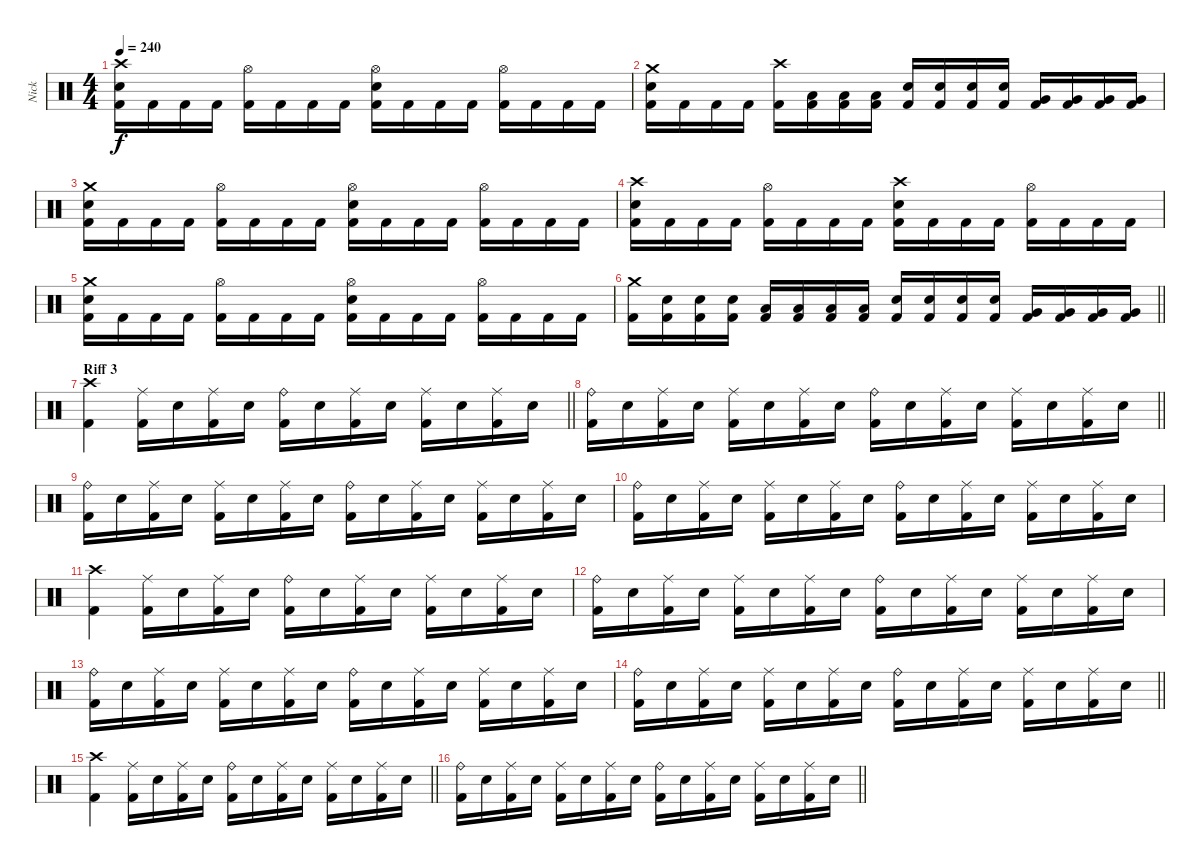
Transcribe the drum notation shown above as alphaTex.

\track ("Nick" "Nick") {instrument percussion}
\staff {score}
\articulation defaults
\ts (4 4)
\tempo 240
\clef neutral
\ks c
("Crash high (hit)" "Electric Snare (hit)" "Kick (hit) 2").16{dy f} "Kick (hit) 2".16 "Kick (hit) 2".16 "Kick (hit) 2".16 ("Hi-Hat (open)" "Kick (hit) 2").16 "Kick (hit) 2".16 "Kick (hit) 2".16 "Kick (hit) 2".16 ("Hi-Hat (open)" "Electric Snare (hit)" "Kick (hit) 2").16 "Kick (hit) 2".16 "Kick (hit) 2".16 "Kick (hit) 2".16 ("Hi-Hat (open)" "Kick (hit) 2").16 "Kick (hit) 2".16 "Kick (hit) 2".16 "Kick (hit) 2".16 |
("Crash medium (hit)" "Electric Snare (hit)" "Kick (hit) 2").16 "Kick (hit) 2".16 "Kick (hit) 2".16 "Kick (hit) 2".16 ("Crash high (hit)" "Kick (hit) 2").16 ("Low Tom (hit)" "Kick (hit) 2").16 ("Low Tom (hit)" "Kick (hit) 2").16 ("Low Tom (hit)" "Kick (hit) 2").16 ("Electric Snare (hit)" "Kick (hit) 2").16 ("Electric Snare (hit)" "Kick (hit) 2").16 ("Electric Snare (hit)" "Kick (hit) 2").16 ("Electric Snare (hit)" "Kick (hit) 2").16 ("Very Low Tom (hit)" "Kick (hit) 2").16 ("Very Low Tom (hit)" "Kick (hit) 2").16 ("Very Low Tom (hit)" "Kick (hit) 2").16 ("Very Low Tom (hit)" "Kick (hit) 2").16 |
("Crash medium (hit)" "Electric Snare (hit)" "Kick (hit) 2").16 "Kick (hit) 2".16 "Kick (hit) 2".16 "Kick (hit) 2".16 ("Hi-Hat (open)" "Kick (hit) 2").16 "Kick (hit) 2".16 "Kick (hit) 2".16 "Kick (hit) 2".16 ("Hi-Hat (open)" "Electric Snare (hit)" "Kick (hit) 2").16 "Kick (hit) 2".16 "Kick (hit) 2".16 "Kick (hit) 2".16 ("Hi-Hat (open)" "Kick (hit) 2").16 "Kick (hit) 2".16 "Kick (hit) 2".16 "Kick (hit) 2".16 |
("Crash high (hit)" "Electric Snare (hit)" "Kick (hit) 2").16 "Kick (hit) 2".16 "Kick (hit) 2".16 "Kick (hit) 2".16 ("Hi-Hat (open)" "Kick (hit) 2").16 "Kick (hit) 2".16 "Kick (hit) 2".16 "Kick (hit) 2".16 ("Crash high (hit)" "Electric Snare (hit)" "Kick (hit) 2").16 "Kick (hit) 2".16 "Kick (hit) 2".16 "Kick (hit) 2".16 ("Hi-Hat (open)" "Kick (hit) 2").16 "Kick (hit) 2".16 "Kick (hit) 2".16 "Kick (hit) 2".16 |
("Crash medium (hit)" "Electric Snare (hit)" "Kick (hit) 2").16 "Kick (hit) 2".16 "Kick (hit) 2".16 "Kick (hit) 2".16 ("Hi-Hat (open)" "Kick (hit) 2").16 "Kick (hit) 2".16 "Kick (hit) 2".16 "Kick (hit) 2".16 ("Hi-Hat (open)" "Electric Snare (hit)" "Kick (hit) 2").16 "Kick (hit) 2".16 "Kick (hit) 2".16 "Kick (hit) 2".16 ("Hi-Hat (open)" "Kick (hit) 2").16 "Kick (hit) 2".16 "Kick (hit) 2".16 "Kick (hit) 2".16 |
\barLineRight lightlight
("Crash medium (hit)" "Kick (hit) 2").16 ("Electric Snare (hit)" "Kick (hit) 2").16 ("Electric Snare (hit)" "Kick (hit) 2").16 ("Electric Snare (hit)" "Kick (hit) 2").16 ("Low Tom (hit)" "Kick (hit) 2").16 ("Low Tom (hit)" "Kick (hit) 2").16 ("Low Tom (hit)" "Kick (hit) 2").16 ("Low Tom (hit)" "Kick (hit) 2").16 ("Electric Snare (hit)" "Kick (hit) 2").16 ("Electric Snare (hit)" "Kick (hit) 2").16 ("Electric Snare (hit)" "Kick (hit) 2").16 ("Electric Snare (hit)" "Kick (hit) 2").16 ("Very Low Tom (hit)" "Kick (hit) 2").16 ("Very Low Tom (hit)" "Kick (hit) 2").16 ("Very Low Tom (hit)" "Kick (hit) 2").16 ("Very Low Tom (hit)" "Kick (hit) 2").16 |
\section ("" "Riff 3")
\barLineRight lightlight
("Crash high (hit)" "Kick (hit) 2").4 ("Ride (middle)" "Kick (hit) 2").16 "Electric Snare (hit)".16 ("Ride (middle)" "Kick (hit) 2").16 "Electric Snare (hit)".16 ("Ride (bell)" "Kick (hit) 2").16 "Electric Snare (hit)".16 ("Ride (middle)" "Kick (hit) 2").16 "Electric Snare (hit)".16 ("Ride (middle)" "Kick (hit) 2").16 "Electric Snare (hit)".16 ("Ride (middle)" "Kick (hit) 2").16 "Electric Snare (hit)".16 |
\barLineRight lightlight
("Ride (bell)" "Kick (hit) 2").16 "Electric Snare (hit)".16 ("Ride (middle)" "Kick (hit) 2").16 "Electric Snare (hit)".16 ("Ride (middle)" "Kick (hit) 2").16 "Electric Snare (hit)".16 ("Ride (middle)" "Kick (hit) 2").16 "Electric Snare (hit)".16 ("Ride (bell)" "Kick (hit) 2").16 "Electric Snare (hit)".16 ("Ride (middle)" "Kick (hit) 2").16 "Electric Snare (hit)".16 ("Ride (middle)" "Kick (hit) 2").16 "Electric Snare (hit)".16 ("Ride (middle)" "Kick (hit) 2").16 "Electric Snare (hit)".16 |
("Ride (bell)" "Kick (hit) 2").16 "Electric Snare (hit)".16 ("Ride (middle)" "Kick (hit) 2").16 "Electric Snare (hit)".16 ("Ride (middle)" "Kick (hit) 2").16 "Electric Snare (hit)".16 ("Ride (middle)" "Kick (hit) 2").16 "Electric Snare (hit)".16 ("Ride (bell)" "Kick (hit) 2").16 "Electric Snare (hit)".16 ("Ride (middle)" "Kick (hit) 2").16 "Electric Snare (hit)".16 ("Ride (middle)" "Kick (hit) 2").16 "Electric Snare (hit)".16 ("Ride (middle)" "Kick (hit) 2").16 "Electric Snare (hit)".16 |
("Ride (bell)" "Kick (hit) 2").16 "Electric Snare (hit)".16 ("Ride (middle)" "Kick (hit) 2").16 "Electric Snare (hit)".16 ("Ride (middle)" "Kick (hit) 2").16 "Electric Snare (hit)".16 ("Ride (middle)" "Kick (hit) 2").16 "Electric Snare (hit)".16 ("Ride (bell)" "Kick (hit) 2").16 "Electric Snare (hit)".16 ("Ride (middle)" "Kick (hit) 2").16 "Electric Snare (hit)".16 ("Ride (middle)" "Kick (hit) 2").16 "Electric Snare (hit)".16 ("Ride (middle)" "Kick (hit) 2").16 "Electric Snare (hit)".16 |
("Crash high (hit)" "Kick (hit) 2").4 ("Ride (middle)" "Kick (hit) 2").16 "Electric Snare (hit)".16 ("Ride (middle)" "Kick (hit) 2").16 "Electric Snare (hit)".16 ("Ride (bell)" "Kick (hit) 2").16 "Electric Snare (hit)".16 ("Ride (middle)" "Kick (hit) 2").16 "Electric Snare (hit)".16 ("Ride (middle)" "Kick (hit) 2").16 "Electric Snare (hit)".16 ("Ride (middle)" "Kick (hit) 2").16 "Electric Snare (hit)".16 |
("Ride (bell)" "Kick (hit) 2").16 "Electric Snare (hit)".16 ("Ride (middle)" "Kick (hit) 2").16 "Electric Snare (hit)".16 ("Ride (middle)" "Kick (hit) 2").16 "Electric Snare (hit)".16 ("Ride (middle)" "Kick (hit) 2").16 "Electric Snare (hit)".16 ("Ride (bell)" "Kick (hit) 2").16 "Electric Snare (hit)".16 ("Ride (middle)" "Kick (hit) 2").16 "Electric Snare (hit)".16 ("Ride (middle)" "Kick (hit) 2").16 "Electric Snare (hit)".16 ("Ride (middle)" "Kick (hit) 2").16 "Electric Snare (hit)".16 |
("Ride (bell)" "Kick (hit) 2").16 "Electric Snare (hit)".16 ("Ride (middle)" "Kick (hit) 2").16 "Electric Snare (hit)".16 ("Ride (middle)" "Kick (hit) 2").16 "Electric Snare (hit)".16 ("Ride (middle)" "Kick (hit) 2").16 "Electric Snare (hit)".16 ("Ride (bell)" "Kick (hit) 2").16 "Electric Snare (hit)".16 ("Ride (middle)" "Kick (hit) 2").16 "Electric Snare (hit)".16 ("Ride (middle)" "Kick (hit) 2").16 "Electric Snare (hit)".16 ("Ride (middle)" "Kick (hit) 2").16 "Electric Snare (hit)".16 |
\barLineRight lightlight
("Ride (bell)" "Kick (hit) 2").16 "Electric Snare (hit)".16 ("Ride (middle)" "Kick (hit) 2").16 "Electric Snare (hit)".16 ("Ride (middle)" "Kick (hit) 2").16 "Electric Snare (hit)".16 ("Ride (middle)" "Kick (hit) 2").16 "Electric Snare (hit)".16 ("Ride (bell)" "Kick (hit) 2").16 "Electric Snare (hit)".16 ("Ride (middle)" "Kick (hit) 2").16 "Electric Snare (hit)".16 ("Ride (middle)" "Kick (hit) 2").16 "Electric Snare (hit)".16 ("Ride (middle)" "Kick (hit) 2").16 "Electric Snare (hit)".16 |
\barLineRight lightlight
("Crash high (hit)" "Kick (hit) 2").4 ("Ride (middle)" "Kick (hit) 2").16 "Electric Snare (hit)".16 ("Ride (middle)" "Kick (hit) 2").16 "Electric Snare (hit)".16 ("Ride (bell)" "Kick (hit) 2").16 "Electric Snare (hit)".16 ("Ride (middle)" "Kick (hit) 2").16 "Electric Snare (hit)".16 ("Ride (middle)" "Kick (hit) 2").16 "Electric Snare (hit)".16 ("Ride (middle)" "Kick (hit) 2").16 "Electric Snare (hit)".16 |
\barLineRight lightlight
("Ride (bell)" "Kick (hit) 2").16 "Electric Snare (hit)".16 ("Ride (middle)" "Kick (hit) 2").16 "Electric Snare (hit)".16 ("Ride (middle)" "Kick (hit) 2").16 "Electric Snare (hit)".16 ("Ride (middle)" "Kick (hit) 2").16 "Electric Snare (hit)".16 ("Ride (bell)" "Kick (hit) 2").16 "Electric Snare (hit)".16 ("Ride (middle)" "Kick (hit) 2").16 "Electric Snare (hit)".16 ("Ride (middle)" "Kick (hit) 2").16 "Electric Snare (hit)".16 ("Ride (middle)" "Kick (hit) 2").16 "Electric Snare (hit)".16
